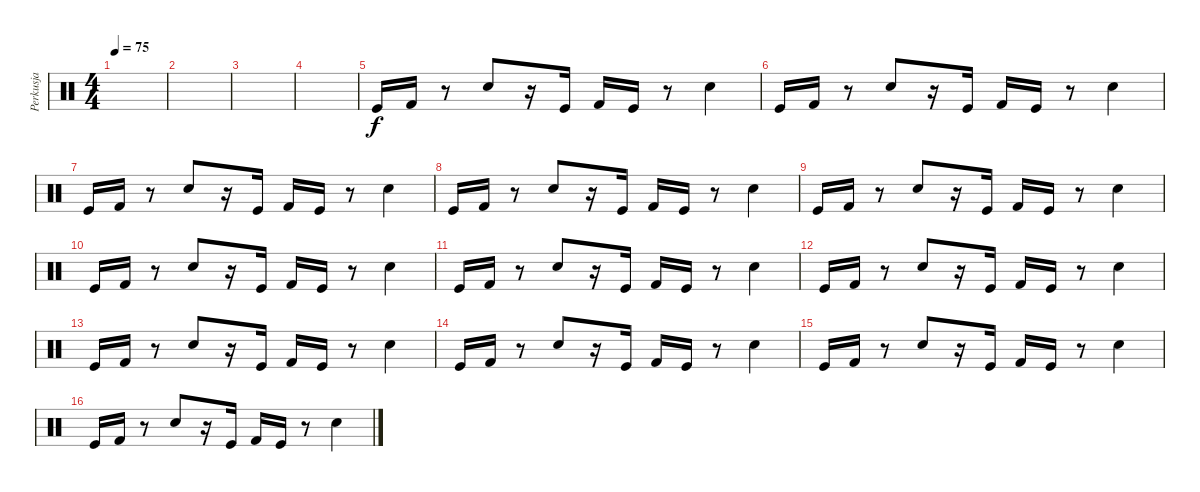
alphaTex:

\track ("Perkusja" "Perkusja") {instrument percussion}
\staff {score}
\articulation defaults
\ts (4 4)
\tempo 75
\clef neutral
\ks c
|
|
|
|
"Kick (hit)".16 "Kick (hit) 2".16 r.8 "Snare (hit) 2".8 r.16 "Kick (hit)".16 "Kick (hit) 2".16 "Kick (hit)".16 r.8 "Snare (hit) 2".4 |
"Kick (hit)".16 "Kick (hit) 2".16 r.8 "Snare (hit) 2".8 r.16 "Kick (hit)".16 "Kick (hit) 2".16 "Kick (hit)".16 r.8 "Snare (hit) 2".4 |
"Kick (hit)".16 "Kick (hit) 2".16 r.8 "Snare (hit) 2".8 r.16 "Kick (hit)".16 "Kick (hit) 2".16 "Kick (hit)".16 r.8 "Snare (hit) 2".4 |
"Kick (hit)".16 "Kick (hit) 2".16 r.8 "Snare (hit) 2".8 r.16 "Kick (hit)".16 "Kick (hit) 2".16 "Kick (hit)".16 r.8 "Snare (hit) 2".4 |
"Kick (hit)".16 "Kick (hit) 2".16 r.8 "Snare (hit) 2".8 r.16 "Kick (hit)".16 "Kick (hit) 2".16 "Kick (hit)".16 r.8 "Snare (hit) 2".4 |
"Kick (hit)".16 "Kick (hit) 2".16 r.8 "Snare (hit) 2".8 r.16 "Kick (hit)".16 "Kick (hit) 2".16 "Kick (hit)".16 r.8 "Snare (hit) 2".4 |
"Kick (hit)".16 "Kick (hit) 2".16 r.8 "Snare (hit) 2".8 r.16 "Kick (hit)".16 "Kick (hit) 2".16 "Kick (hit)".16 r.8 "Snare (hit) 2".4 |
"Kick (hit)".16 "Kick (hit) 2".16 r.8 "Snare (hit) 2".8 r.16 "Kick (hit)".16 "Kick (hit) 2".16 "Kick (hit)".16 r.8 "Snare (hit) 2".4 |
"Kick (hit)".16 "Kick (hit) 2".16 r.8 "Snare (hit) 2".8 r.16 "Kick (hit)".16 "Kick (hit) 2".16 "Kick (hit)".16 r.8 "Snare (hit) 2".4 |
"Kick (hit)".16 "Kick (hit) 2".16 r.8 "Snare (hit) 2".8 r.16 "Kick (hit)".16 "Kick (hit) 2".16 "Kick (hit)".16 r.8 "Snare (hit) 2".4 |
"Kick (hit)".16 "Kick (hit) 2".16 r.8 "Snare (hit) 2".8 r.16 "Kick (hit)".16 "Kick (hit) 2".16 "Kick (hit)".16 r.8 "Snare (hit) 2".4 |
"Kick (hit)".16 "Kick (hit) 2".16 r.8 "Snare (hit) 2".8 r.16 "Kick (hit)".16 "Kick (hit) 2".16 "Kick (hit)".16 r.8 "Snare (hit) 2".4
